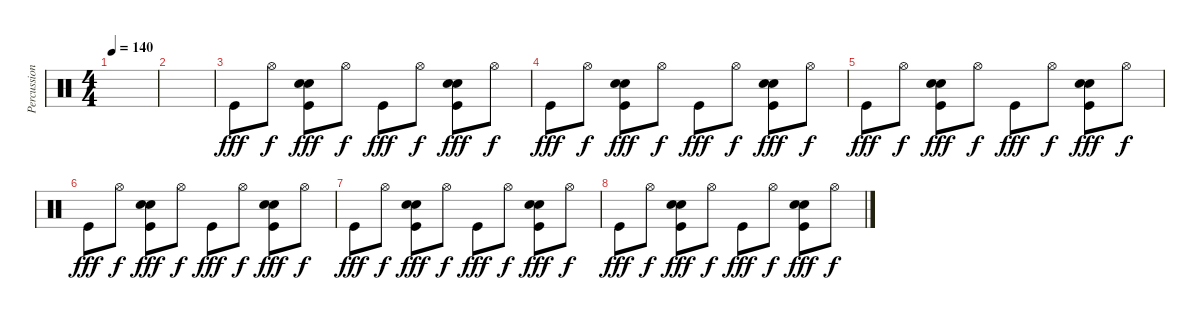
\track ("Percussions" "Percussion") {instrument percussion}
\staff {score}
\articulation defaults
\ts (4 4)
\tempo 140
\clef neutral
\ks c
|
|
"Kick (hit)".8{dy fff} "Hi-Hat (open)".8{dy f} ("Kick (hit)" "Snare (hit) 2" "Hand Clap (hit)").8{dy fff} "Hi-Hat (open)".8{dy f} "Kick (hit)".8{dy fff} "Hi-Hat (open)".8{dy f} ("Kick (hit)" "Snare (hit) 2" "Hand Clap (hit)").8{dy fff} "Hi-Hat (open)".8{dy f} |
"Kick (hit)".8{dy fff} "Hi-Hat (open)".8{dy f} ("Kick (hit)" "Snare (hit) 2" "Hand Clap (hit)").8{dy fff} "Hi-Hat (open)".8{dy f} "Kick (hit)".8{dy fff} "Hi-Hat (open)".8{dy f} ("Kick (hit)" "Snare (hit) 2" "Hand Clap (hit)").8{dy fff} "Hi-Hat (open)".8{dy f} |
"Kick (hit)".8{dy fff} "Hi-Hat (open)".8{dy f} ("Kick (hit)" "Snare (hit) 2" "Hand Clap (hit)").8{dy fff} "Hi-Hat (open)".8{dy f} "Kick (hit)".8{dy fff} "Hi-Hat (open)".8{dy f} ("Kick (hit)" "Snare (hit) 2" "Hand Clap (hit)").8{dy fff} "Hi-Hat (open)".8{dy f} |
"Kick (hit)".8{dy fff} "Hi-Hat (open)".8{dy f} ("Kick (hit)" "Snare (hit) 2" "Hand Clap (hit)").8{dy fff} "Hi-Hat (open)".8{dy f} "Kick (hit)".8{dy fff} "Hi-Hat (open)".8{dy f} ("Kick (hit)" "Snare (hit) 2" "Hand Clap (hit)").8{dy fff} "Hi-Hat (open)".8{dy f} |
"Kick (hit)".8{dy fff} "Hi-Hat (open)".8{dy f} ("Kick (hit)" "Snare (hit) 2" "Hand Clap (hit)").8{dy fff} "Hi-Hat (open)".8{dy f} "Kick (hit)".8{dy fff} "Hi-Hat (open)".8{dy f} ("Kick (hit)" "Snare (hit) 2" "Hand Clap (hit)").8{dy fff} "Hi-Hat (open)".8{dy f} |
"Kick (hit)".8{dy fff} "Hi-Hat (open)".8{dy f} ("Kick (hit)" "Snare (hit) 2" "Hand Clap (hit)").8{dy fff} "Hi-Hat (open)".8{dy f} "Kick (hit)".8{dy fff} "Hi-Hat (open)".8{dy f} ("Kick (hit)" "Snare (hit) 2" "Hand Clap (hit)").8{dy fff} "Hi-Hat (open)".8{dy f}
